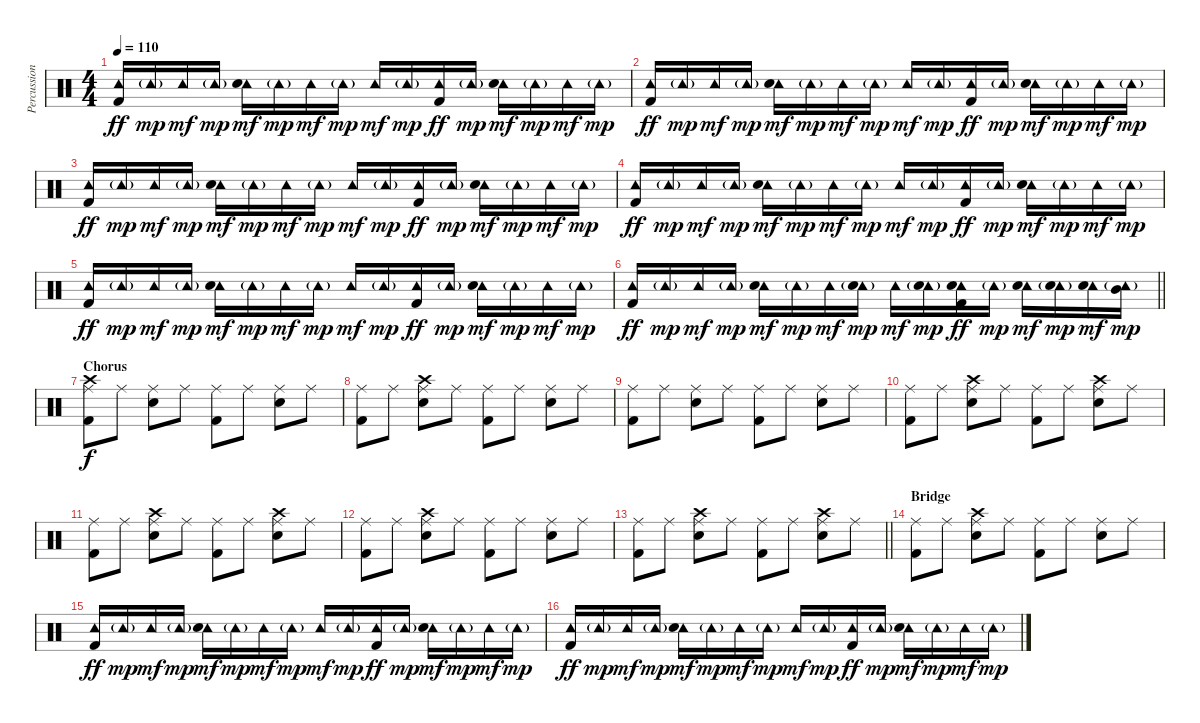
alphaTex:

\track ("Percussion" "Percussion") {instrument percussion}
\staff {score}
\articulation defaults
\ts (4 4)
\tempo 110
\clef neutral
\ks c
("Tambourine (hit)" "Kick (hit) 2").16{dy ff} "Tambourine (hit)"{g}.16{dy mp} "Tambourine (hit)".16{dy mf} "Tambourine (hit)"{g}.16{dy mp} ("Tambourine (hit)" "Electric Snare (hit)").16{dy mf} "Tambourine (hit)"{g}.16{dy mp} "Tambourine (hit)".16{dy mf} "Tambourine (hit)"{g}.16{dy mp} "Tambourine (hit)".16{dy mf} "Tambourine (hit)"{g}.16{dy mp} ("Tambourine (hit)" "Kick (hit) 2").16{dy ff} "Tambourine (hit)"{g}.16{dy mp} ("Tambourine (hit)" "Electric Snare (hit)").16{dy mf} "Tambourine (hit)"{g}.16{dy mp} "Tambourine (hit)".16{dy mf} "Tambourine (hit)"{g}.16{dy mp} |
("Tambourine (hit)" "Kick (hit) 2").16{dy ff} "Tambourine (hit)"{g}.16{dy mp} "Tambourine (hit)".16{dy mf} "Tambourine (hit)"{g}.16{dy mp} ("Tambourine (hit)" "Electric Snare (hit)").16{dy mf} "Tambourine (hit)"{g}.16{dy mp} "Tambourine (hit)".16{dy mf} "Tambourine (hit)"{g}.16{dy mp} "Tambourine (hit)".16{dy mf} "Tambourine (hit)"{g}.16{dy mp} ("Tambourine (hit)" "Kick (hit) 2").16{dy ff} "Tambourine (hit)"{g}.16{dy mp} ("Tambourine (hit)" "Electric Snare (hit)").16{dy mf} "Tambourine (hit)"{g}.16{dy mp} "Tambourine (hit)".16{dy mf} "Tambourine (hit)"{g}.16{dy mp} |
("Tambourine (hit)" "Kick (hit) 2").16{dy ff} "Tambourine (hit)"{g}.16{dy mp} "Tambourine (hit)".16{dy mf} "Tambourine (hit)"{g}.16{dy mp} ("Tambourine (hit)" "Electric Snare (hit)").16{dy mf} "Tambourine (hit)"{g}.16{dy mp} "Tambourine (hit)".16{dy mf} "Tambourine (hit)"{g}.16{dy mp} "Tambourine (hit)".16{dy mf} "Tambourine (hit)"{g}.16{dy mp} ("Tambourine (hit)" "Kick (hit) 2").16{dy ff} "Tambourine (hit)"{g}.16{dy mp} ("Tambourine (hit)" "Electric Snare (hit)").16{dy mf} "Tambourine (hit)"{g}.16{dy mp} "Tambourine (hit)".16{dy mf} "Tambourine (hit)"{g}.16{dy mp} |
("Tambourine (hit)" "Kick (hit) 2").16{dy ff} "Tambourine (hit)"{g}.16{dy mp} "Tambourine (hit)".16{dy mf} "Tambourine (hit)"{g}.16{dy mp} ("Tambourine (hit)" "Electric Snare (hit)").16{dy mf} "Tambourine (hit)"{g}.16{dy mp} "Tambourine (hit)".16{dy mf} "Tambourine (hit)"{g}.16{dy mp} "Tambourine (hit)".16{dy mf} "Tambourine (hit)"{g}.16{dy mp} ("Tambourine (hit)" "Kick (hit) 2").16{dy ff} "Tambourine (hit)"{g}.16{dy mp} ("Tambourine (hit)" "Electric Snare (hit)").16{dy mf} "Tambourine (hit)"{g}.16{dy mp} "Tambourine (hit)".16{dy mf} "Tambourine (hit)"{g}.16{dy mp} |
("Tambourine (hit)" "Kick (hit) 2").16{dy ff} "Tambourine (hit)"{g}.16{dy mp} "Tambourine (hit)".16{dy mf} "Tambourine (hit)"{g}.16{dy mp} ("Tambourine (hit)" "Electric Snare (hit)").16{dy mf} "Tambourine (hit)"{g}.16{dy mp} "Tambourine (hit)".16{dy mf} "Tambourine (hit)"{g}.16{dy mp} "Tambourine (hit)".16{dy mf} "Tambourine (hit)"{g}.16{dy mp} ("Tambourine (hit)" "Kick (hit) 2").16{dy ff} "Tambourine (hit)"{g}.16{dy mp} ("Tambourine (hit)" "Electric Snare (hit)").16{dy mf} "Tambourine (hit)"{g}.16{dy mp} "Tambourine (hit)".16{dy mf} "Tambourine (hit)"{g}.16{dy mp} |
\barLineRight lightlight
("Tambourine (hit)" "Kick (hit) 2").16{dy ff} "Tambourine (hit)"{g}.16{dy mp} "Tambourine (hit)".16{dy mf} "Tambourine (hit)"{g}.16{dy mp} ("Tambourine (hit)" "Electric Snare (hit)").16{dy mf} "Tambourine (hit)"{g}.16{dy mp} "Tambourine (hit)".16{dy mf} ("Tambourine (hit)"{g} "Electric Snare (hit)").16{dy mp} "Tambourine (hit)".16{dy mf} ("Tambourine (hit)"{g} "Electric Snare (hit)").16{dy mp} ("Tambourine (hit)" "Electric Snare (hit)" "Kick (hit) 2").16{dy ff} "Tambourine (hit)"{g}.16{dy mp} ("Tambourine (hit)" "Electric Snare (hit)").16{dy mf} ("Tambourine (hit)"{g} "Electric Snare (hit)").16{dy mp} ("Tambourine (hit)" "Electric Snare (hit)").16{dy mf} ("Tambourine (hit)"{g} "Mid Tom (hit)").16{dy mp} |
\section ("" "Chorus")
("Crash high (hit)" "Ride (middle)" "Kick (hit) 2").8{dy f} "Ride (middle)".8 ("Ride (middle)" "Electric Snare (hit)").8 "Ride (middle)".8 ("Ride (middle)" "Kick (hit) 2").8 "Ride (middle)".8 ("Ride (middle)" "Electric Snare (hit)").8 "Ride (middle)".8 |
("Ride (middle)" "Kick (hit) 2").8 "Ride (middle)".8 ("Crash high (hit)" "Ride (middle)" "Electric Snare (hit)").8 "Ride (middle)".8 ("Ride (middle)" "Kick (hit) 2").8 "Ride (middle)".8 ("Ride (middle)" "Electric Snare (hit)").8 "Ride (middle)".8 |
("Ride (middle)" "Kick (hit) 2").8 "Ride (middle)".8 ("Ride (middle)" "Electric Snare (hit)").8 "Ride (middle)".8 ("Ride (middle)" "Kick (hit) 2").8 "Ride (middle)".8 ("Ride (middle)" "Electric Snare (hit)").8 "Ride (middle)".8 |
("Ride (middle)" "Kick (hit) 2").8 "Ride (middle)".8 ("Crash high (hit)" "Ride (middle)" "Electric Snare (hit)").8 "Ride (middle)".8 ("Ride (middle)" "Kick (hit) 2").8 "Ride (middle)".8 ("Crash high (hit)" "Ride (middle)" "Electric Snare (hit)").8 "Ride (middle)".8 |
("Ride (middle)" "Kick (hit) 2").8 "Ride (middle)".8 ("Crash high (hit)" "Ride (middle)" "Electric Snare (hit)").8 "Ride (middle)".8 ("Ride (middle)" "Kick (hit) 2").8 "Ride (middle)".8 ("Crash high (hit)" "Ride (middle)" "Electric Snare (hit)").8 "Ride (middle)".8 |
("Ride (middle)" "Kick (hit) 2").8 "Ride (middle)".8 ("Crash high (hit)" "Ride (middle)" "Electric Snare (hit)").8 "Ride (middle)".8 ("Ride (middle)" "Kick (hit) 2").8 "Ride (middle)".8 ("Ride (middle)" "Electric Snare (hit)").8 "Ride (middle)".8 |
\barLineRight lightlight
("Ride (middle)" "Kick (hit) 2").8 "Ride (middle)".8 ("Crash high (hit)" "Ride (middle)" "Electric Snare (hit)").8 "Ride (middle)".8 ("Ride (middle)" "Kick (hit) 2").8 "Ride (middle)".8 ("Crash high (hit)" "Ride (middle)" "Electric Snare (hit)").8 "Ride (middle)".8 |
\section ("" "Bridge")
("Ride (middle)" "Kick (hit) 2").8 "Ride (middle)".8 ("Crash high (hit)" "Ride (middle)" "Electric Snare (hit)").8 "Ride (middle)".8 ("Ride (middle)" "Kick (hit) 2").8 "Ride (middle)".8 ("Ride (middle)" "Electric Snare (hit)").8 "Ride (middle)".8 |
("Tambourine (hit)" "Kick (hit) 2").16{dy ff} "Tambourine (hit)"{g}.16{dy mp} "Tambourine (hit)".16{dy mf} "Tambourine (hit)"{g}.16{dy mp} ("Tambourine (hit)" "Electric Snare (hit)").16{dy mf} "Tambourine (hit)"{g}.16{dy mp} "Tambourine (hit)".16{dy mf} "Tambourine (hit)"{g}.16{dy mp} "Tambourine (hit)".16{dy mf} "Tambourine (hit)"{g}.16{dy mp} ("Tambourine (hit)" "Kick (hit) 2").16{dy ff} "Tambourine (hit)"{g}.16{dy mp} ("Tambourine (hit)" "Electric Snare (hit)").16{dy mf} "Tambourine (hit)"{g}.16{dy mp} "Tambourine (hit)".16{dy mf} "Tambourine (hit)"{g}.16{dy mp} |
("Tambourine (hit)" "Kick (hit) 2").16{dy ff} "Tambourine (hit)"{g}.16{dy mp} "Tambourine (hit)".16{dy mf} "Tambourine (hit)"{g}.16{dy mp} ("Tambourine (hit)" "Electric Snare (hit)").16{dy mf} "Tambourine (hit)"{g}.16{dy mp} "Tambourine (hit)".16{dy mf} "Tambourine (hit)"{g}.16{dy mp} "Tambourine (hit)".16{dy mf} "Tambourine (hit)"{g}.16{dy mp} ("Tambourine (hit)" "Kick (hit) 2").16{dy ff} "Tambourine (hit)"{g}.16{dy mp} ("Tambourine (hit)" "Electric Snare (hit)").16{dy mf} "Tambourine (hit)"{g}.16{dy mp} "Tambourine (hit)".16{dy mf} "Tambourine (hit)"{g}.16{dy mp}
